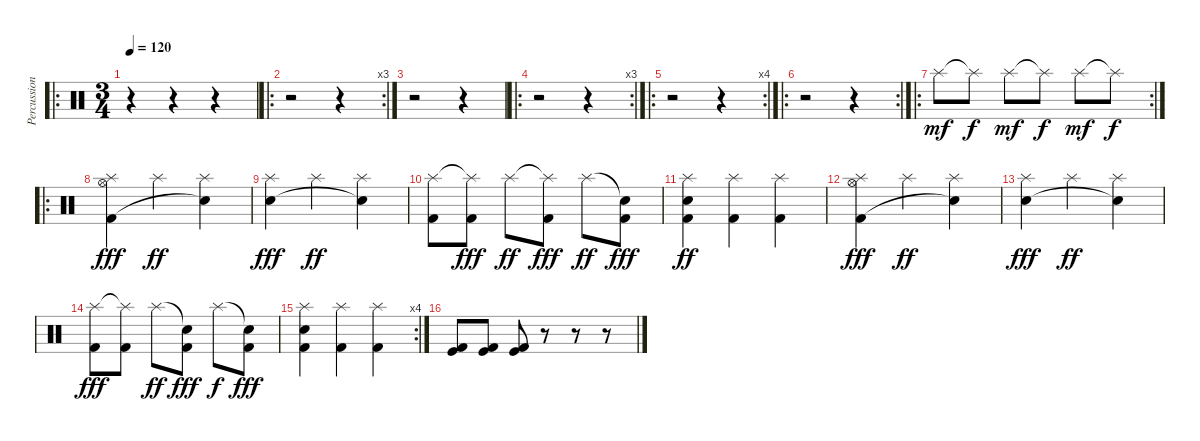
\track ("Percussion" "Percussion") {instrument percussion}
\staff {score}
\articulation defaults
\ro
\ts (3 4)
\tempo 120
\clef neutral
\ks c
r.4{dy mf} r.4 r.4 |
\ro
\rc 3
r.2 r.4 |
r.2 r.4 |
\ro
\rc 3
r.2 r.4 |
\ro
\rc 4
r.2 r.4 |
\ro
\rc 2
r.2 r.4 |
\ro
\rc 2 "Splash (hit)".8 "Splash (hit)"{t}.8{dy f} "Splash (hit)".8{dy mf} "Splash (hit)"{t}.8{dy f} "Splash (hit)".8{dy mf} "Splash (hit)"{t}.8{dy f}
|
\ro
("Splash (hit)" "Kick (hit) 2" "Hi-Hat (open)").4{dy fff} "Splash (hit)".4{dy ff} ("Splash (hit)" "Snare (hit)"{t}).4 |
("Splash (hit)" "Electric Snare (hit)").4{dy fff} "Splash (hit)".4{dy ff} ("Splash (hit)" "Snare (hit)"{t}).4 |
("Splash (hit)" "Kick (hit) 2").8 ("Splash (hit)"{t} "Kick (hit) 2").8{dy fff} "Splash (hit)".8{dy ff} ("Splash (hit)"{t} "Kick (hit) 2").8{dy fff} "Splash (hit)".8{dy ff} ("Snare (hit)"{t} "Kick (hit) 2").8{dy fff} |
("Splash (hit)" "Electric Snare (hit)" "Kick (hit) 2").4{dy ff} ("Splash (hit)" "Kick (hit) 2").4 ("Splash (hit)" "Kick (hit) 2").4 |
("Splash (hit)" "Kick (hit) 2" "Hi-Hat (open)").4{dy fff} "Splash (hit)".4{dy ff} ("Splash (hit)" "Snare (hit)"{t}).4 |
("Splash (hit)" "Electric Snare (hit)").4{dy fff} "Splash (hit)".4{dy ff} ("Splash (hit)" "Snare (hit)"{t}).4 |
("Splash (hit)" "Kick (hit) 2").8{dy fff} ("Splash (hit)"{t} "Kick (hit) 2").8 "Splash (hit)".8{dy ff} ("Snare (hit)"{t} "Kick (hit) 2").8{dy fff} "Splash (hit)".8{dy f} ("Snare (hit)"{t} "Kick (hit) 2").8{dy fff} |
\rc 4
("Splash (hit)" "Electric Snare (hit)" "Kick (hit) 2").4 ("Splash (hit)" "Kick (hit) 2").4 ("Splash (hit)" "Kick (hit) 2").4 |
("Kick (hit)" "Kick (hit) 2").8 ("Kick (hit)" "Kick (hit) 2").8 ("Kick (hit)" "Kick (hit) 2").8 r.8 r.8 r.8
